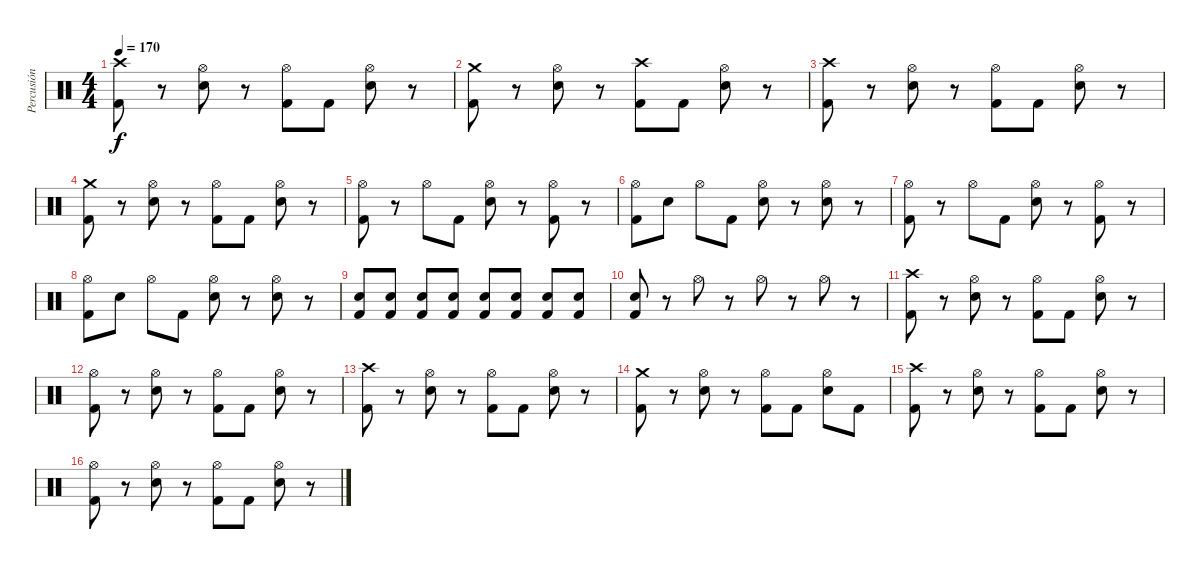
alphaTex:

\track ("Percusión" "Percusión") {instrument percussion}
\staff {score}
\articulation defaults
\ts (4 4)
\tempo 170
\clef neutral
\ks c
("Crash high (hit)" "Kick (hit) 2").8{dy f} r.8 ("Hi-Hat (open)" "Electric Snare (hit)").8 r.8 ("Hi-Hat (open)" "Kick (hit) 2").8 "Kick (hit) 2".8 ("Hi-Hat (open)" "Electric Snare (hit)").8 r.8 |
("Crash medium (hit)" "Kick (hit) 2").8 r.8 ("Hi-Hat (open)" "Electric Snare (hit)").8 r.8 ("Crash high (hit)" "Kick (hit) 2").8 "Kick (hit) 2".8 ("Hi-Hat (open)" "Electric Snare (hit)").8 r.8 |
("Crash high (hit)" "Kick (hit) 2").8 r.8 ("Hi-Hat (open)" "Electric Snare (hit)").8 r.8 ("Hi-Hat (open)" "Kick (hit) 2").8 "Kick (hit) 2".8 ("Hi-Hat (open)" "Electric Snare (hit)").8 r.8 |
("Crash medium (hit)" "Kick (hit) 2").8 r.8 ("Hi-Hat (open)" "Electric Snare (hit)").8 r.8 ("Hi-Hat (open)" "Kick (hit) 2").8 "Kick (hit) 2".8 ("Hi-Hat (open)" "Electric Snare (hit)").8 r.8 |
("Hi-Hat (open)" "Kick (hit) 2").8 r.8 "Hi-Hat (open)".8 "Kick (hit) 2".8 ("Hi-Hat (open)" "Electric Snare (hit)").8 r.8 ("Hi-Hat (open)" "Kick (hit) 2").8 r.8 |
("Hi-Hat (open)" "Kick (hit) 2").8 "Electric Snare (hit)".8 "Hi-Hat (open)".8 "Kick (hit) 2".8 ("Hi-Hat (open)" "Electric Snare (hit)").8 r.8 ("Hi-Hat (open)" "Electric Snare (hit)").8 r.8 |
("Hi-Hat (open)" "Kick (hit) 2").8 r.8 "Hi-Hat (open)".8 "Kick (hit) 2".8 ("Hi-Hat (open)" "Electric Snare (hit)").8 r.8 ("Hi-Hat (open)" "Kick (hit) 2").8 r.8 |
("Hi-Hat (open)" "Kick (hit) 2").8 "Electric Snare (hit)".8 "Hi-Hat (open)".8 "Kick (hit) 2".8 ("Hi-Hat (open)" "Electric Snare (hit)").8 r.8 ("Hi-Hat (open)" "Electric Snare (hit)").8 r.8 |
("Kick (hit) 2" "Electric Snare (hit)").8 ("Kick (hit) 2" "Electric Snare (hit)").8 ("Kick (hit) 2" "Electric Snare (hit)").8 ("Kick (hit) 2" "Electric Snare (hit)").8 ("Kick (hit) 2" "Electric Snare (hit)").8 ("Kick (hit) 2" "Electric Snare (hit)").8 ("Kick (hit) 2" "Electric Snare (hit)").8 ("Kick (hit) 2" "Electric Snare (hit)").8 |
("Kick (hit) 2" "Electric Snare (hit)").8 r.8 "Hi-Hat (open)".8 r.8 "Hi-Hat (open)".8 r.8 "Hi-Hat (open)".8 r.8 |
("Crash high (hit)" "Kick (hit) 2").8 r.8 ("Hi-Hat (open)" "Electric Snare (hit)").8 r.8 ("Hi-Hat (open)" "Kick (hit) 2").8 "Kick (hit) 2".8 ("Hi-Hat (open)" "Electric Snare (hit)").8 r.8 |
("Hi-Hat (open)" "Kick (hit) 2").8 r.8 ("Hi-Hat (open)" "Electric Snare (hit)").8 r.8 ("Hi-Hat (open)" "Kick (hit) 2").8 "Kick (hit) 2".8 ("Hi-Hat (open)" "Electric Snare (hit)").8 r.8 |
("Crash high (hit)" "Kick (hit) 2").8 r.8 ("Hi-Hat (open)" "Electric Snare (hit)").8 r.8 ("Hi-Hat (open)" "Kick (hit) 2").8 "Kick (hit) 2".8 ("Hi-Hat (open)" "Electric Snare (hit)").8 r.8 |
("Crash medium (hit)" "Kick (hit) 2").8 r.8 ("Hi-Hat (open)" "Electric Snare (hit)").8 r.8 ("Hi-Hat (open)" "Kick (hit) 2").8 "Kick (hit) 2".8 ("Hi-Hat (open)" "Electric Snare (hit)").8 "Kick (hit) 2".8 |
("Crash high (hit)" "Kick (hit) 2").8 r.8 ("Hi-Hat (open)" "Electric Snare (hit)").8 r.8 ("Hi-Hat (open)" "Kick (hit) 2").8 "Kick (hit) 2".8 ("Hi-Hat (open)" "Electric Snare (hit)").8 r.8 |
("Hi-Hat (open)" "Kick (hit) 2").8 r.8 ("Hi-Hat (open)" "Electric Snare (hit)").8 r.8 ("Hi-Hat (open)" "Kick (hit) 2").8 "Kick (hit) 2".8 ("Hi-Hat (open)" "Electric Snare (hit)").8 r.8
